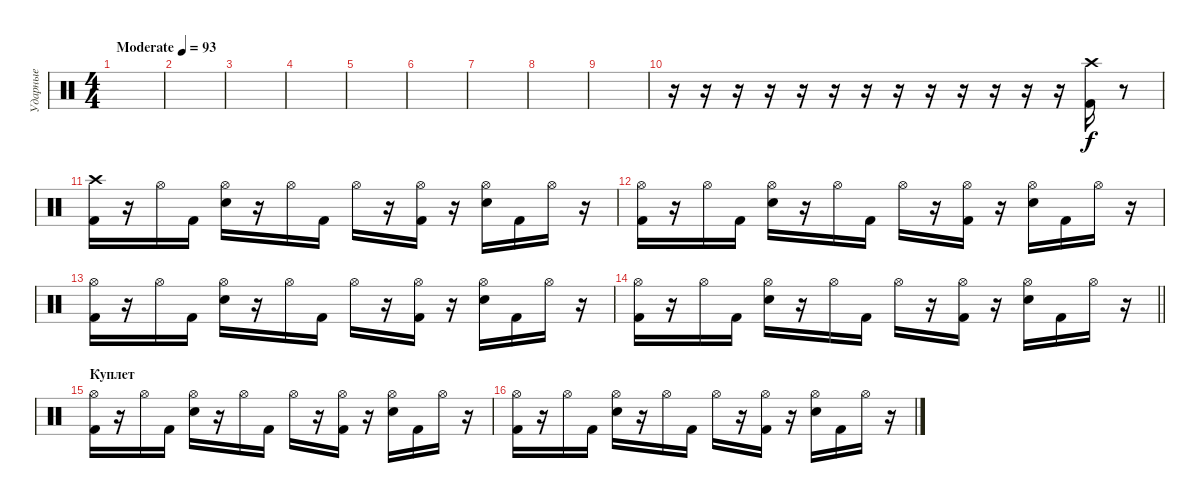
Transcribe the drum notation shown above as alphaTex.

\track ("Ударные" "Ударные") {instrument percussion}
\staff {score}
\articulation defaults
\ts (4 4)
\tempo (93 "Moderate")
\clef neutral
\ks c
|
|
|
|
|
|
|
|
|
r.16 r.16 r.16 r.16 r.16 r.16 r.16 r.16 r.16 r.16 r.16 r.16 r.16 ("Crash high (hit)" "Kick (hit) 2").16 r.8 |
("Crash high (hit)" "Kick (hit) 2").16 r.16 "Hi-Hat (open)".16 "Kick (hit) 2".16 ("Hi-Hat (open)" "Electric Snare (hit)").16 r.16 "Hi-Hat (open)".16 "Kick (hit) 2".16 "Hi-Hat (open)".16 r.16 ("Hi-Hat (open)" "Kick (hit) 2").16 r.16 ("Hi-Hat (open)" "Electric Snare (hit)").16 "Kick (hit) 2".16 "Hi-Hat (open)".16 r.16 |
("Hi-Hat (open)" "Kick (hit) 2").16 r.16 "Hi-Hat (open)".16 "Kick (hit) 2".16 ("Hi-Hat (open)" "Electric Snare (hit)").16 r.16 "Hi-Hat (open)".16 "Kick (hit) 2".16 "Hi-Hat (open)".16 r.16 ("Hi-Hat (open)" "Kick (hit) 2").16 r.16 ("Hi-Hat (open)" "Electric Snare (hit)").16 "Kick (hit) 2".16 "Hi-Hat (open)".16 r.16 |
("Hi-Hat (open)" "Kick (hit) 2").16 r.16 "Hi-Hat (open)".16 "Kick (hit) 2".16 ("Hi-Hat (open)" "Electric Snare (hit)").16 r.16 "Hi-Hat (open)".16 "Kick (hit) 2".16 "Hi-Hat (open)".16 r.16 ("Hi-Hat (open)" "Kick (hit) 2").16 r.16 ("Hi-Hat (open)" "Electric Snare (hit)").16 "Kick (hit) 2".16 "Hi-Hat (open)".16 r.16 |
\barLineRight lightlight
("Hi-Hat (open)" "Kick (hit) 2").16 r.16 "Hi-Hat (open)".16 "Kick (hit) 2".16 ("Hi-Hat (open)" "Electric Snare (hit)").16 r.16 "Hi-Hat (open)".16 "Kick (hit) 2".16 "Hi-Hat (open)".16 r.16 ("Hi-Hat (open)" "Kick (hit) 2").16 r.16 ("Hi-Hat (open)" "Electric Snare (hit)").16 "Kick (hit) 2".16 "Hi-Hat (open)".16 r.16 |
\section ("" "Куплет")
("Hi-Hat (open)" "Kick (hit) 2").16 r.16 "Hi-Hat (open)".16 "Kick (hit) 2".16 ("Hi-Hat (open)" "Electric Snare (hit)").16 r.16 "Hi-Hat (open)".16 "Kick (hit) 2".16 "Hi-Hat (open)".16 r.16 ("Hi-Hat (open)" "Kick (hit) 2").16 r.16 ("Hi-Hat (open)" "Electric Snare (hit)").16 "Kick (hit) 2".16 "Hi-Hat (open)".16 r.16 |
("Hi-Hat (open)" "Kick (hit) 2").16 r.16 "Hi-Hat (open)".16 "Kick (hit) 2".16 ("Hi-Hat (open)" "Electric Snare (hit)").16 r.16 "Hi-Hat (open)".16 "Kick (hit) 2".16 "Hi-Hat (open)".16 r.16 ("Hi-Hat (open)" "Kick (hit) 2").16 r.16 ("Hi-Hat (open)" "Electric Snare (hit)").16 "Kick (hit) 2".16 "Hi-Hat (open)".16 r.16
